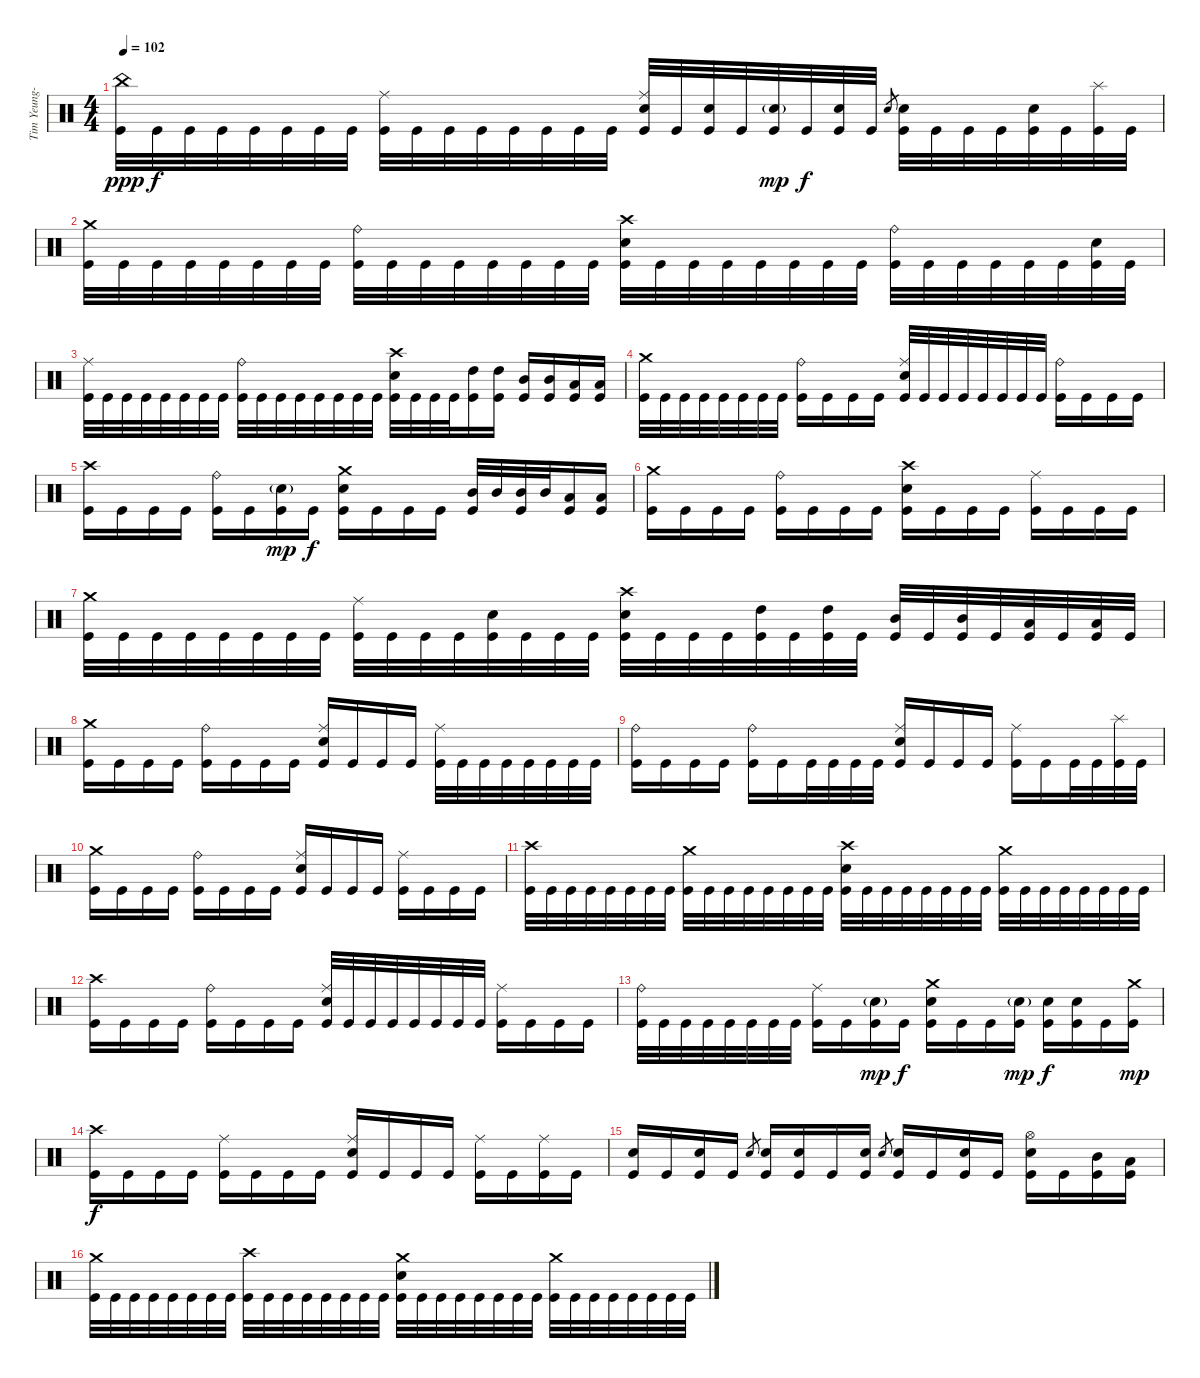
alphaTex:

\track ("Tim Yeung-Drums" "Tim Yeung-") {instrument percussion}
\staff {score}
\articulation defaults
\ts (4 4)
\tempo 102
\clef neutral
\ks c
("China (hit)" "Kick (hit)").32{dy ppp} "Kick (hit)".32{dy f} "Kick (hit)".32 "Kick (hit)".32 "Kick (hit)".32 "Kick (hit)".32 "Kick (hit)".32 "Kick (hit)".32 ("Ride (middle)" "Kick (hit)").32 "Kick (hit)".32 "Kick (hit)".32 "Kick (hit)".32 "Kick (hit)".32 "Kick (hit)".32 "Kick (hit)".32 "Kick (hit)".32 ("Ride (middle)" "Electric Snare (hit)" "Kick (hit)").32 "Kick (hit)".32 ("Electric Snare (hit)" "Kick (hit)").32 "Kick (hit)".32 ("Electric Snare (hit)"{g} "Kick (hit)").32{dy mp} "Kick (hit)".32{dy f} ("Electric Snare (hit)" "Kick (hit)").32 "Kick (hit)".32 "Electric Snare (hit)".8{gr} ("Electric Snare (hit)" "Kick (hit)").32 "Kick (hit)".32 "Kick (hit)".32 "Kick (hit)".32 ("Electric Snare (hit)" "Kick (hit)").32 "Kick (hit)".32 ("Splash (hit)" "Kick (hit)").32 "Kick (hit)".32 |
("Crash medium (hit)" "Kick (hit)").32 "Kick (hit)".32 "Kick (hit)".32 "Kick (hit)".32 "Kick (hit)".32 "Kick (hit)".32 "Kick (hit)".32 "Kick (hit)".32 ("Ride (bell)" "Kick (hit)").32 "Kick (hit)".32 "Kick (hit)".32 "Kick (hit)".32 "Kick (hit)".32 "Kick (hit)".32 "Kick (hit)".32 "Kick (hit)".32 ("Crash high (hit)" "Electric Snare (hit)" "Kick (hit)").32 "Kick (hit)".32 "Kick (hit)".32 "Kick (hit)".32 "Kick (hit)".32 "Kick (hit)".32 "Kick (hit)".32 "Kick (hit)".32 ("Ride (bell)" "Kick (hit)").32 "Kick (hit)".32 "Kick (hit)".32 "Kick (hit)".32 "Kick (hit)".32 "Kick (hit)".32 ("Electric Snare (hit)" "Kick (hit)").32 "Kick (hit)".32 |
("Ride (middle)" "Kick (hit)").32 "Kick (hit)".32 "Kick (hit)".32 "Kick (hit)".32 "Kick (hit)".32 "Kick (hit)".32 "Kick (hit)".32 "Kick (hit)".32 ("Ride (bell)" "Kick (hit)").32 "Kick (hit)".32 "Kick (hit)".32 "Kick (hit)".32 "Kick (hit)".32 "Kick (hit)".32 "Kick (hit)".32 "Kick (hit)".32 ("Crash high (hit)" "Electric Snare (hit)" "Kick (hit)").32 "Kick (hit)".32 "Kick (hit)".32 "Kick (hit)".32 ("High Tom (hit)" "Kick (hit)").16 ("High Tom (hit)" "Kick (hit)").16 ("Mid Tom (hit)" "Kick (hit)").16 ("Mid Tom (hit)" "Kick (hit)").16 ("Low Tom (hit)" "Kick (hit)").16 ("Low Tom (hit)" "Kick (hit)").16 |
("Crash medium (hit)" "Kick (hit)").32 "Kick (hit)".32 "Kick (hit)".32 "Kick (hit)".32 "Kick (hit)".32 "Kick (hit)".32 "Kick (hit)".32 "Kick (hit)".32 ("Ride (bell)" "Kick (hit)").16 "Kick (hit)".16 "Kick (hit)".16 "Kick (hit)".16 ("Ride (middle)" "Electric Snare (hit)" "Kick (hit)").32 "Kick (hit)".32 "Kick (hit)".32 "Kick (hit)".32 "Kick (hit)".32 "Kick (hit)".32 "Kick (hit)".32 "Kick (hit)".32 ("Ride (bell)" "Kick (hit)").16 "Kick (hit)".16 "Kick (hit)".16 "Kick (hit)".16 |
("Crash high (hit)" "Kick (hit)").16 "Kick (hit)".16 "Kick (hit)".16 "Kick (hit)".16 ("Ride (bell)" "Kick (hit)").16 "Kick (hit)".16 ("Electric Snare (hit)"{g} "Kick (hit)").16{dy mp} "Kick (hit)".16{dy f} ("Crash medium (hit)" "Electric Snare (hit)" "Kick (hit)").16 "Kick (hit)".16 "Kick (hit)".16 "Kick (hit)".16 ("Mid Tom (hit)" "Kick (hit)").32 "Mid Tom (hit)".32 ("Mid Tom (hit)" "Kick (hit)").32 "Mid Tom (hit)".32 ("Low Tom (hit)" "Kick (hit)").16 ("Low Tom (hit)" "Kick (hit)").16 |
("Crash medium (hit)" "Kick (hit)").16 "Kick (hit)".16 "Kick (hit)".16 "Kick (hit)".16 ("Ride (bell)" "Kick (hit)").16 "Kick (hit)".16 "Kick (hit)".16 "Kick (hit)".16 ("Crash high (hit)" "Electric Snare (hit)" "Kick (hit)").16 "Kick (hit)".16 "Kick (hit)".16 "Kick (hit)".16 ("Ride (middle)" "Kick (hit)").16 "Kick (hit)".16 "Kick (hit)".16 "Kick (hit)".16 |
("Crash medium (hit)" "Kick (hit)").32 "Kick (hit)".32 "Kick (hit)".32 "Kick (hit)".32 "Kick (hit)".32 "Kick (hit)".32 "Kick (hit)".32 "Kick (hit)".32 ("Ride (middle)" "Kick (hit)").32 "Kick (hit)".32 "Kick (hit)".32 "Kick (hit)".32 ("Electric Snare (hit)" "Kick (hit)").32 "Kick (hit)".32 "Kick (hit)".32 "Kick (hit)".32 ("Crash high (hit)" "Electric Snare (hit)" "Kick (hit)").32 "Kick (hit)".32 "Kick (hit)".32 "Kick (hit)".32 ("High Tom (hit)" "Kick (hit)").32 "Kick (hit)".32 ("High Tom (hit)" "Kick (hit)").32 "Kick (hit)".32 ("Mid Tom (hit)" "Kick (hit)").32 "Kick (hit)".32 ("Mid Tom (hit)" "Kick (hit)").32 "Kick (hit)".32 ("Low Tom (hit)" "Kick (hit)").32 "Kick (hit)".32 ("Low Tom (hit)" "Kick (hit)").32 "Kick (hit)".32 |
("Crash medium (hit)" "Kick (hit)").16 "Kick (hit)".16 "Kick (hit)".16 "Kick (hit)".16 ("Ride (bell)" "Kick (hit)").16 "Kick (hit)".16 "Kick (hit)".16 "Kick (hit)".16 ("Ride (middle)" "Electric Snare (hit)" "Kick (hit)").16 "Kick (hit)".16 "Kick (hit)".16 "Kick (hit)".16 ("Ride (middle)" "Kick (hit)").32 "Kick (hit)".32 "Kick (hit)".32 "Kick (hit)".32 "Kick (hit)".32 "Kick (hit)".32 "Kick (hit)".32 "Kick (hit)".32 |
("Ride (bell)" "Kick (hit)").16 "Kick (hit)".16 "Kick (hit)".16 "Kick (hit)".16 ("Ride (bell)" "Kick (hit)").16 "Kick (hit)".16 "Kick (hit)".32 "Kick (hit)".32 "Kick (hit)".32 "Kick (hit)".32 ("Ride (middle)" "Electric Snare (hit)" "Kick (hit)").16 "Kick (hit)".16 "Kick (hit)".16 "Kick (hit)".16 ("Ride (middle)" "Kick (hit)").16 "Kick (hit)".16 "Kick (hit)".32 "Kick (hit)".32 ("Splash (hit)" "Kick (hit)").32 "Kick (hit)".32 |
("Crash medium (hit)" "Kick (hit)").16 "Kick (hit)".16 "Kick (hit)".16 "Kick (hit)".16 ("Ride (bell)" "Kick (hit)").16 "Kick (hit)".16 "Kick (hit)".16 "Kick (hit)".16 ("Ride (middle)" "Electric Snare (hit)" "Kick (hit)").16 "Kick (hit)".16 "Kick (hit)".16 "Kick (hit)".16 ("Ride (middle)" "Kick (hit)").16 "Kick (hit)".16 "Kick (hit)".16 "Kick (hit)".16 |
("Crash high (hit)" "Kick (hit)").32 "Kick (hit)".32 "Kick (hit)".32 "Kick (hit)".32 "Kick (hit)".32 "Kick (hit)".32 "Kick (hit)".32 "Kick (hit)".32 ("Crash medium (hit)" "Kick (hit)").32 "Kick (hit)".32 "Kick (hit)".32 "Kick (hit)".32 "Kick (hit)".32 "Kick (hit)".32 "Kick (hit)".32 "Kick (hit)".32 ("Crash high (hit)" "Electric Snare (hit)" "Kick (hit)").32 "Kick (hit)".32 "Kick (hit)".32 "Kick (hit)".32 "Kick (hit)".32 "Kick (hit)".32 "Kick (hit)".32 "Kick (hit)".32 ("Crash medium (hit)" "Kick (hit)").32 "Kick (hit)".32 "Kick (hit)".32 "Kick (hit)".32 "Kick (hit)".32 "Kick (hit)".32 "Kick (hit)".32 "Kick (hit)".32 |
("Crash high (hit)" "Kick (hit)").16 "Kick (hit)".16 "Kick (hit)".16 "Kick (hit)".16 ("Ride (bell)" "Kick (hit)").16 "Kick (hit)".16 "Kick (hit)".16 "Kick (hit)".16 ("Ride (middle)" "Electric Snare (hit)" "Kick (hit)").32 "Kick (hit)".32 "Kick (hit)".32 "Kick (hit)".32 "Kick (hit)".32 "Kick (hit)".32 "Kick (hit)".32 "Kick (hit)".32 ("Ride (middle)" "Kick (hit)").16 "Kick (hit)".16 "Kick (hit)".16 "Kick (hit)".16 |
("Ride (bell)" "Kick (hit)").32 "Kick (hit)".32 "Kick (hit)".32 "Kick (hit)".32 "Kick (hit)".32 "Kick (hit)".32 "Kick (hit)".32 "Kick (hit)".32 ("Ride (middle)" "Kick (hit)").16 "Kick (hit)".16 ("Electric Snare (hit)"{g} "Kick (hit)").16{dy mp} "Kick (hit)".16{dy f} ("Crash medium (hit)" "Electric Snare (hit)" "Kick (hit)").16 "Kick (hit)".16 "Kick (hit)".16 ("Electric Snare (hit)"{g} "Kick (hit)").16{dy mp} ("Electric Snare (hit)" "Kick (hit)").16{dy f} ("Electric Snare (hit)" "Kick (hit)").16 "Kick (hit)".16 ("Crash medium (hit)" "Kick (hit)").16{dy mp} |
("Crash high (hit)" "Kick (hit)").16{dy f} "Kick (hit)".16 "Kick (hit)".16 "Kick (hit)".16 ("Ride (middle)" "Kick (hit)").16 "Kick (hit)".16 "Kick (hit)".16 "Kick (hit)".16 ("Ride (middle)" "Electric Snare (hit)" "Kick (hit)").16 "Kick (hit)".16 "Kick (hit)".16 "Kick (hit)".16 ("Ride (middle)" "Kick (hit)").16 "Kick (hit)".16 ("Ride (middle)" "Kick (hit)").16 "Kick (hit)".16 |
("Electric Snare (hit)" "Kick (hit)").16 "Kick (hit)".16 ("Electric Snare (hit)" "Kick (hit)").16 "Kick (hit)".16 "Electric Snare (hit)".8{gr} ("Electric Snare (hit)" "Kick (hit)").16 ("Electric Snare (hit)" "Kick (hit)").16 "Kick (hit)".16 ("Electric Snare (hit)" "Kick (hit)").16 "Electric Snare (hit)".8{gr} ("Electric Snare (hit)" "Kick (hit)").16 "Kick (hit)".16 ("Electric Snare (hit)" "Kick (hit)").16 "Kick (hit)".16 ("Hi-Hat (open)" "Electric Snare (hit)" "Kick (hit)").16 "Kick (hit)".16 ("Mid Tom (hit)" "Kick (hit)").16 ("Low Tom (hit)" "Kick (hit)").16 |
("Crash medium (hit)" "Kick (hit)").32 "Kick (hit)".32 "Kick (hit)".32 "Kick (hit)".32 "Kick (hit)".32 "Kick (hit)".32 "Kick (hit)".32 "Kick (hit)".32 ("Crash high (hit)" "Kick (hit)").32 "Kick (hit)".32 "Kick (hit)".32 "Kick (hit)".32 "Kick (hit)".32 "Kick (hit)".32 "Kick (hit)".32 "Kick (hit)".32 ("Crash medium (hit)" "Electric Snare (hit)" "Kick (hit)").32 "Kick (hit)".32 "Kick (hit)".32 "Kick (hit)".32 "Kick (hit)".32 "Kick (hit)".32 "Kick (hit)".32 "Kick (hit)".32 ("Crash medium (hit)" "Kick (hit)").32 "Kick (hit)".32 "Kick (hit)".32 "Kick (hit)".32 "Kick (hit)".32 "Kick (hit)".32 "Kick (hit)".32 "Kick (hit)".32
